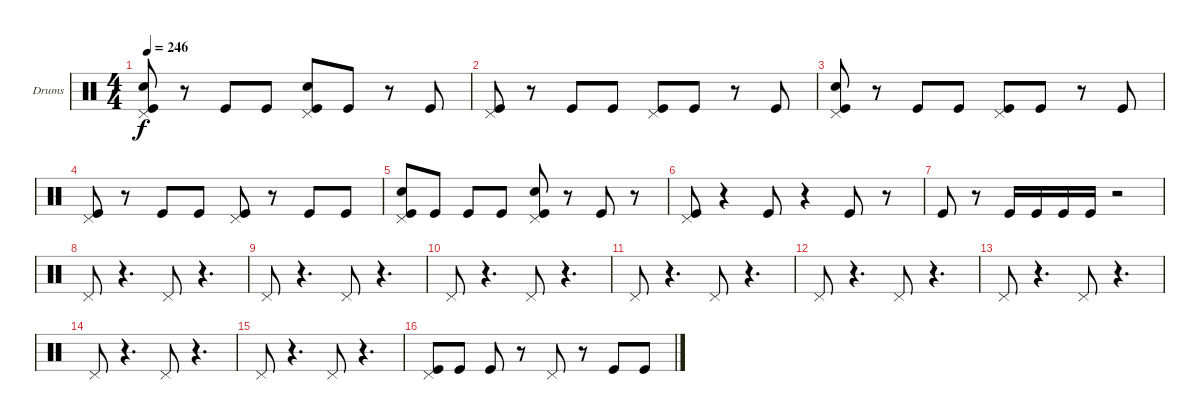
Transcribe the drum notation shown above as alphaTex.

\bracketExtendMode groupsimilarinstruments
\firstSystemTrackNameOrientation horizontal
\otherSystemsTrackNameOrientation horizontal
\track ("Drumkit" "Drums") {instrument percussion}
\staff {score}
\articulation defaults
\ts (4 4)
\tempo 246
\clef neutral
\ks c
("Pedal Hi-Hat (hit)" "Snare (hit) 2" "Kick (hit)").8{dy f} r.8 "Kick (hit)".8 "Kick (hit)".8 ("Kick (hit)" "Pedal Hi-Hat (hit)" "Snare (hit) 2").8 "Kick (hit)".8 r.8 "Kick (hit)".8 |
("Pedal Hi-Hat (hit)" "Kick (hit)").8 r.8 "Kick (hit)".8 "Kick (hit)".8 ("Pedal Hi-Hat (hit)" "Kick (hit)").8 "Kick (hit)".8 r.8 "Kick (hit)".8 |
("Pedal Hi-Hat (hit)" "Snare (hit) 2" "Kick (hit)").8 r.8 "Kick (hit)".8 "Kick (hit)".8 ("Kick (hit)" "Pedal Hi-Hat (hit)").8 "Kick (hit)".8 r.8 "Kick (hit)".8 |
("Kick (hit)" "Pedal Hi-Hat (hit)").8 r.8 "Kick (hit)".8 "Kick (hit)".8 ("Pedal Hi-Hat (hit)" "Kick (hit)").8 r.8 "Kick (hit)".8 "Kick (hit)".8 |
("Pedal Hi-Hat (hit)" "Snare (hit) 2" "Kick (hit)").8 "Kick (hit)".8 "Kick (hit)".8 "Kick (hit)".8 ("Kick (hit)" "Pedal Hi-Hat (hit)" "Snare (hit) 2").8 r.8 "Kick (hit)".8 r.8 |
("Pedal Hi-Hat (hit)" "Kick (hit)").8 r.4 "Kick (hit)".8 r.4 "Kick (hit)".8 r.8 |
"Kick (hit)".8 r.8 "Kick (hit)".16 "Kick (hit)".16 "Kick (hit)".16 "Kick (hit)".16 r.2 |
"Pedal Hi-Hat (hit)".8 r.4{d} "Pedal Hi-Hat (hit)".8 r.4{d} |
"Pedal Hi-Hat (hit)".8 r.4{d} "Pedal Hi-Hat (hit)".8 r.4{d} |
"Pedal Hi-Hat (hit)".8 r.4{d} "Pedal Hi-Hat (hit)".8 r.4{d} |
"Pedal Hi-Hat (hit)".8 r.4{d} "Pedal Hi-Hat (hit)".8 r.4{d} |
"Pedal Hi-Hat (hit)".8 r.4{d} "Pedal Hi-Hat (hit)".8 r.4{d} |
"Pedal Hi-Hat (hit)".8 r.4{d} "Pedal Hi-Hat (hit)".8 r.4{d} |
"Pedal Hi-Hat (hit)".8 r.4{d} "Pedal Hi-Hat (hit)".8 r.4{d} |
"Pedal Hi-Hat (hit)".8 r.4{d} "Pedal Hi-Hat (hit)".8 r.4{d} |
("Kick (hit)" "Pedal Hi-Hat (hit)").8 "Kick (hit)".8 "Kick (hit)".8 r.8 "Pedal Hi-Hat (hit)".8 r.8 "Kick (hit)".8 "Kick (hit)".8
